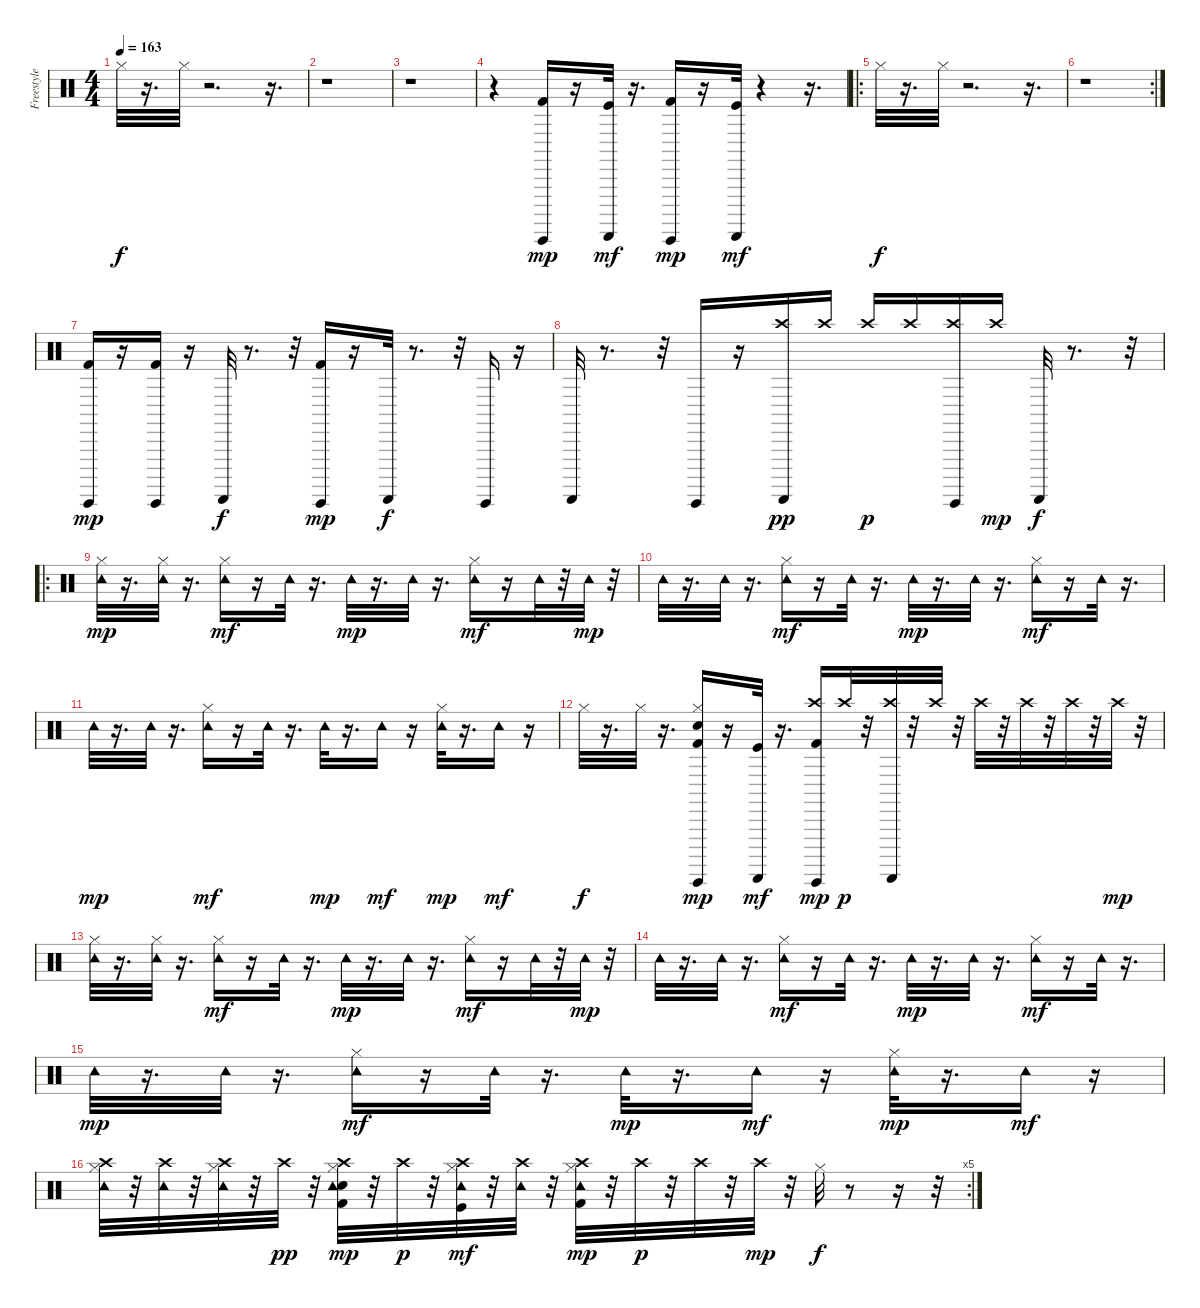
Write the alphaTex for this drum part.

\track ("Freestyle Drums2" "Freestyle ") {instrument percussion}
\staff {score}
\articulation defaults
\ts (4 4)
\tempo 163
\clef neutral
\ks c "Hi-Hat (closed)".32{dy f}
r.16{d} "Hi-Hat (closed)".32 r.2{d} r.16{d} |
r.1 |
r.1 |
r.4 ("Kick (hit) 2" "Guiro (hit)").16{dy mp} r.16 ("Kick (hit)" "Guiro (scrap-return)").32{dy mf} r.16{d} ("Kick (hit) 2" "Guiro (hit)").16{dy mp} r.16 ("Kick (hit)" "Guiro (scrap-return)").32{dy mf} r.4 r.16{d} |
\ro "Hi-Hat (closed)".32{dy f}
r.16{d} "Hi-Hat (closed)".32 r.2{d} r.16{d} |
\rc 2
r.1 |
("Kick (hit) 2" "Guiro (hit)").16{dy mp} r.16 ("Kick (hit) 2" "Guiro (hit)").16 r.16 "Guiro (scrap-return)".32{dy f} r.8{d} r.32 ("Kick (hit) 2" "Guiro (hit)").16{dy mp} r.16 "Guiro (scrap-return)".32{dy f} r.8{d} r.32 "Guiro (hit)".16 r.16 |
"Guiro (scrap-return)".32 r.8{d} r.32 "Guiro (hit)".16 r.16 ("Crash high (hit)" "Guiro (scrap-return)").16{dy pp} "Crash high (hit)".16 "Crash high (hit)".16{dy p} "Crash high (hit)".16 ("Crash high (hit)" "Guiro (hit)").16 "Crash high (hit)".16{dy mp} "Guiro (scrap-return)".32{dy f} r.8{d} r.32 |
\ro
("Hi-Hat (closed)" "Tambourine (hit)").32{dy mp} r.16{d} ("Hi-Hat (closed)" "Tambourine (hit)").32 r.16{d} ("Hi-Hat (closed)" "Tambourine (hit)").16{dy mf} r.16 "Tambourine (hit)".32 r.16{d} "Tambourine (hit)".32{dy mp} r.16{d} "Tambourine (hit)".32 r.16{d} ("Hi-Hat (closed)" "Tambourine (hit)").16{dy mf} r.16 "Tambourine (hit)".32 r.32 "Tambourine (hit)".32{dy mp} r.32 |
"Tambourine (hit)".32 r.16{d} "Tambourine (hit)".32 r.16{d} ("Hi-Hat (closed)" "Tambourine (hit)").16{dy mf} r.16 "Tambourine (hit)".32 r.16{d} "Tambourine (hit)".32{dy mp} r.16{d} "Tambourine (hit)".32 r.16{d} ("Hi-Hat (closed)" "Tambourine (hit)").16{dy mf} r.16 "Tambourine (hit)".32 r.16{d} |
"Tambourine (hit)".32{dy mp} r.16{d} "Tambourine (hit)".32 r.16{d} ("Hi-Hat (closed)" "Tambourine (hit)").16{dy mf} r.16 "Tambourine (hit)".32 r.16{d} "Tambourine (hit)".32{dy mp} r.16{d} "Tambourine (hit)".16{dy mf} r.16 ("Hi-Hat (closed)" "Tambourine (hit)").32{dy mp} r.16{d} "Tambourine (hit)".16{dy mf} r.16 |
"Hi-Hat (closed)".32{dy f} r.16{d} "Hi-Hat (closed)".32 r.16{d} ("Electric Snare (hit)" "Hi-Hat (closed)" "Guiro (hit)" "Kick (hit) 2").16{dy mp} r.16 ("Kick (hit)" "Guiro (scrap-return)").32{dy mf} r.16{d} ("Crash high (hit)" "Guiro (hit)" "Kick (hit) 2").16{dy mp} "Crash high (hit)".32{dy p} r.32 ("Crash high (hit)" "Guiro (scrap-return)").32 r.32 "Crash high (hit)".32 r.32 "Crash high (hit)".32 r.32 "Crash high (hit)".32 r.32 "Crash high (hit)".32 r.32 "Crash high (hit)".32{dy mp} r.32 |
("Hi-Hat (closed)" "Tambourine (hit)").32 r.16{d} ("Hi-Hat (closed)" "Tambourine (hit)").32 r.16{d} ("Hi-Hat (closed)" "Tambourine (hit)").16{dy mf} r.16 "Tambourine (hit)".32 r.16{d} "Tambourine (hit)".32{dy mp} r.16{d} "Tambourine (hit)".32 r.16{d} ("Hi-Hat (closed)" "Tambourine (hit)").16{dy mf} r.16 "Tambourine (hit)".32 r.32 "Tambourine (hit)".32{dy mp} r.32 |
"Tambourine (hit)".32 r.16{d} "Tambourine (hit)".32 r.16{d} ("Hi-Hat (closed)" "Tambourine (hit)").16{dy mf} r.16 "Tambourine (hit)".32 r.16{d} "Tambourine (hit)".32{dy mp} r.16{d} "Tambourine (hit)".32 r.16{d} ("Hi-Hat (closed)" "Tambourine (hit)").16{dy mf} r.16 "Tambourine (hit)".32 r.16{d} |
"Tambourine (hit)".32{dy mp} r.16{d} "Tambourine (hit)".32 r.16{d} ("Hi-Hat (closed)" "Tambourine (hit)").16{dy mf} r.16 "Tambourine (hit)".32 r.16{d} "Tambourine (hit)".32{dy mp} r.16{d} "Tambourine (hit)".16{dy mf} r.16 ("Hi-Hat (closed)" "Tambourine (hit)").32{dy mp} r.16{d} "Tambourine (hit)".16{dy mf} r.16 |
\rc 5
("Hi-Hat (closed)" "Crash high (hit)" "Tambourine (hit)").32 r.32 ("Crash high (hit)" "Tambourine (hit)").32 r.32 ("Hi-Hat (closed)" "Crash high (hit)" "Tambourine (hit)").32 r.32 "Crash high (hit)".32{dy pp} r.32 ("Electric Snare (hit)" "Hi-Hat (closed)" "Crash high (hit)" "Tambourine (hit)" "Kick (hit) 2").32{dy mp} r.32 "Crash high (hit)".32{dy p} r.32 ("Kick (hit)" "Hi-Hat (closed)" "Crash high (hit)" "Tambourine (hit)").32{dy mf} r.32 ("Crash high (hit)" "Tambourine (hit)").32 r.32 ("Hi-Hat (closed)" "Crash high (hit)" "Tambourine (hit)" "Kick (hit) 2").32{dy mp} r.32 "Crash high (hit)".32{dy p} r.32 "Crash high (hit)".32 r.32 "Crash high (hit)".32{dy mp} r.32 "Hi-Hat (closed)".32{dy f} r.8 r.16 r.32
